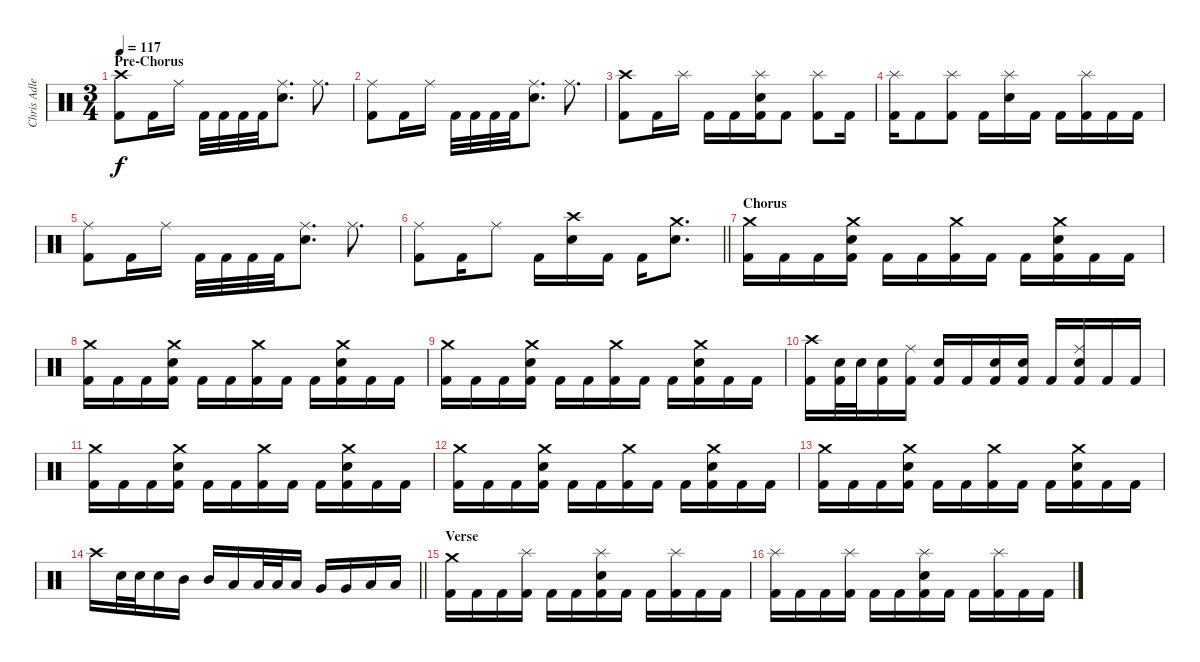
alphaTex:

\track ("Chris Adler" "Chris Adle") {instrument percussion}
\staff {score}
\articulation defaults
\ts (3 4)
\section ("" "Pre-Chorus")
\tempo 117
\clef neutral
\ks c
("Crash high (hit)" "Kick (hit) 2").8{dy f} "Kick (hit) 2".16 "Ride (middle)".16 "Kick (hit) 2".32 "Kick (hit) 2".32 "Kick (hit) 2".32 "Kick (hit) 2".32 ("Ride (middle)" "Electric Snare (hit)").8{d} "Ride (middle)".8{d} |
("Ride (middle)" "Kick (hit) 2").8 "Kick (hit) 2".16 "Ride (middle)".16 "Kick (hit) 2".32 "Kick (hit) 2".32 "Kick (hit) 2".32 "Kick (hit) 2".32 ("Ride (middle)" "Electric Snare (hit)").8{d} "Ride (middle)".8{d} |
("Crash high (hit)" "Kick (hit) 2").8 "Kick (hit) 2".16 "Splash (hit)".16 "Kick (hit) 2".16 "Kick (hit) 2".16 ("Splash (hit)" "Electric Snare (hit)" "Kick (hit) 2").16 "Kick (hit) 2".8 ("Splash (hit)" "Kick (hit) 2").8 "Kick (hit) 2".16 |
("Splash (hit)" "Kick (hit) 2").16 "Kick (hit) 2".8 ("Splash (hit)" "Kick (hit) 2").8 "Kick (hit) 2".16 ("Splash (hit)" "Electric Snare (hit)").16 "Kick (hit) 2".16 "Kick (hit) 2".16 ("Splash (hit)" "Kick (hit) 2").16 "Kick (hit) 2".16 "Kick (hit) 2".16 |
("Ride (middle)" "Kick (hit) 2").8 "Kick (hit) 2".16 "Ride (middle)".16 "Kick (hit) 2".32 "Kick (hit) 2".32 "Kick (hit) 2".32 "Kick (hit) 2".32 ("Ride (middle)" "Electric Snare (hit)").8{d} "Ride (middle)".8{d} |
\barLineRight lightlight
("Ride (middle)" "Kick (hit) 2").8 "Kick (hit) 2".16 "Ride (middle)".8 "Kick (hit) 2".16 ("Crash high (hit)" "Electric Snare (hit)").16 "Kick (hit) 2".16 "Kick (hit) 2".16 ("Crash medium (hit)" "Electric Snare (hit)").8{d} |
\section ("" "Chorus")
("Crash medium (hit)" "Kick (hit) 2").16 "Kick (hit) 2".16 "Kick (hit) 2".16 ("Crash medium (hit)" "Electric Snare (hit)" "Kick (hit) 2").16 "Kick (hit) 2".16 "Kick (hit) 2".16 ("Crash medium (hit)" "Kick (hit) 2").16 "Kick (hit) 2".16 "Kick (hit) 2".16 ("Crash medium (hit)" "Electric Snare (hit)" "Kick (hit) 2").16 "Kick (hit) 2".16 "Kick (hit) 2".16 |
("Crash medium (hit)" "Kick (hit) 2").16 "Kick (hit) 2".16 "Kick (hit) 2".16 ("Crash medium (hit)" "Electric Snare (hit)" "Kick (hit) 2").16 "Kick (hit) 2".16 "Kick (hit) 2".16 ("Crash medium (hit)" "Kick (hit) 2").16 "Kick (hit) 2".16 "Kick (hit) 2".16 ("Crash medium (hit)" "Electric Snare (hit)" "Kick (hit) 2").16 "Kick (hit) 2".16 "Kick (hit) 2".16 |
("Crash medium (hit)" "Kick (hit) 2").16 "Kick (hit) 2".16 "Kick (hit) 2".16 ("Crash medium (hit)" "Electric Snare (hit)" "Kick (hit) 2").16 "Kick (hit) 2".16 "Kick (hit) 2".16 ("Crash medium (hit)" "Kick (hit) 2").16 "Kick (hit) 2".16 "Kick (hit) 2".16 ("Crash medium (hit)" "Electric Snare (hit)" "Kick (hit) 2").16 "Kick (hit) 2".16 "Kick (hit) 2".16 |
("Crash high (hit)" "Kick (hit) 2").16 ("Electric Snare (hit)" "Kick (hit) 2").32 "Electric Snare (hit)".32 ("Electric Snare (hit)" "Kick (hit) 2").16 ("Ride (middle)" "Kick (hit) 2").16 ("Electric Snare (hit)" "Kick (hit) 2").16 "Kick (hit) 2".16 ("Electric Snare (hit)" "Kick (hit) 2").16 ("Electric Snare (hit)" "Kick (hit) 2").16 "Kick (hit) 2".16 ("Ride (middle)" "Electric Snare (hit)" "Kick (hit) 2").16 "Kick (hit) 2".16 "Kick (hit) 2".16 |
("Crash medium (hit)" "Kick (hit) 2").16 "Kick (hit) 2".16 "Kick (hit) 2".16 ("Crash medium (hit)" "Electric Snare (hit)" "Kick (hit) 2").16 "Kick (hit) 2".16 "Kick (hit) 2".16 ("Crash medium (hit)" "Kick (hit) 2").16 "Kick (hit) 2".16 "Kick (hit) 2".16 ("Crash medium (hit)" "Electric Snare (hit)" "Kick (hit) 2").16 "Kick (hit) 2".16 "Kick (hit) 2".16 |
("Crash medium (hit)" "Kick (hit) 2").16 "Kick (hit) 2".16 "Kick (hit) 2".16 ("Crash medium (hit)" "Electric Snare (hit)" "Kick (hit) 2").16 "Kick (hit) 2".16 "Kick (hit) 2".16 ("Crash medium (hit)" "Kick (hit) 2").16 "Kick (hit) 2".16 "Kick (hit) 2".16 ("Crash medium (hit)" "Electric Snare (hit)" "Kick (hit) 2").16 "Kick (hit) 2".16 "Kick (hit) 2".16 |
("Crash medium (hit)" "Kick (hit) 2").16 "Kick (hit) 2".16 "Kick (hit) 2".16 ("Crash medium (hit)" "Electric Snare (hit)" "Kick (hit) 2").16 "Kick (hit) 2".16 "Kick (hit) 2".16 ("Crash medium (hit)" "Kick (hit) 2").16 "Kick (hit) 2".16 "Kick (hit) 2".16 ("Crash medium (hit)" "Electric Snare (hit)" "Kick (hit) 2").16 "Kick (hit) 2".16 "Kick (hit) 2".16 |
\barLineRight lightlight "Crash high (hit)".16 "Electric Snare (hit)".32 "Electric Snare (hit)".32 "Electric Snare (hit)".16 "Mid Tom (hit)".16 "Mid Tom (hit)".16 "Low Tom (hit)".16 "Low Tom (hit)".32 "Low Tom (hit)".32 "Low Tom (hit)".16 "Very Low Tom (hit)".16 "Very Low Tom (hit)".16 "Low Floor Tom (hit)".16 "Low Floor Tom (hit)".16
|
\section ("" "Verse ")
("Crash medium (hit)" "Kick (hit) 2").16 "Kick (hit) 2".16 "Kick (hit) 2".16 ("Splash (hit)" "Kick (hit) 2").16 "Kick (hit) 2".16 "Kick (hit) 2".16 ("Splash (hit)" "Electric Snare (hit)" "Kick (hit) 2").16 "Kick (hit) 2".16 "Kick (hit) 2".16 ("Splash (hit)" "Kick (hit) 2").16 "Kick (hit) 2".16 "Kick (hit) 2".16 |
("Splash (hit)" "Kick (hit) 2").16 "Kick (hit) 2".16 "Kick (hit) 2".16 ("Splash (hit)" "Kick (hit) 2").16 "Kick (hit) 2".16 "Kick (hit) 2".16 ("Splash (hit)" "Electric Snare (hit)" "Kick (hit) 2").16 "Kick (hit) 2".16 "Kick (hit) 2".16 ("Splash (hit)" "Kick (hit) 2").16 "Kick (hit) 2".16 "Kick (hit) 2".16
